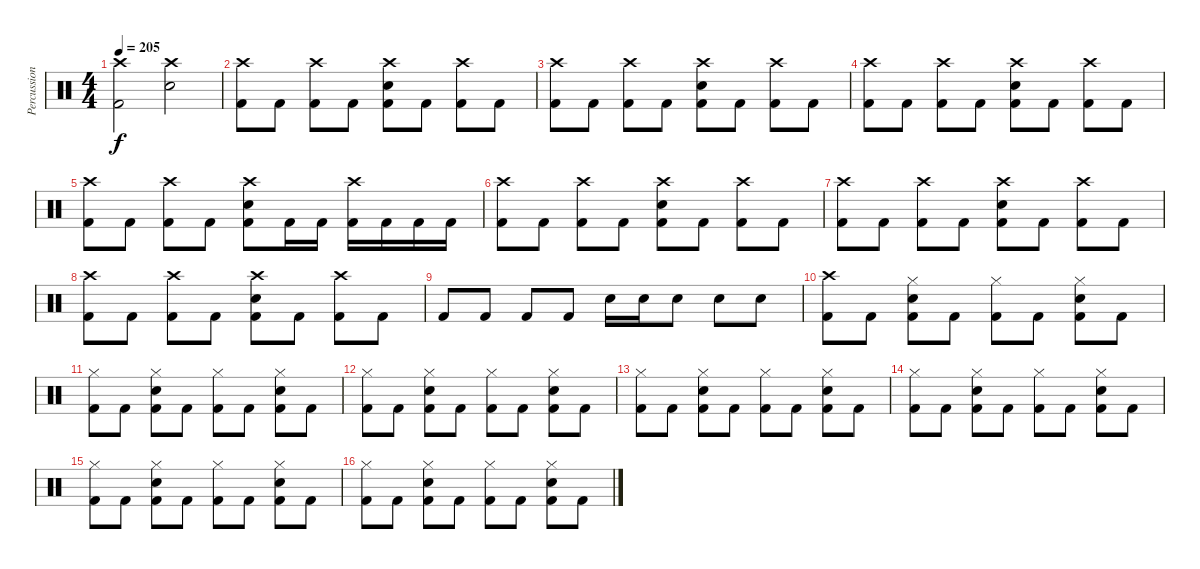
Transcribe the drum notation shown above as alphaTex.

\track ("Percussion" "Percussion") {instrument percussion}
\staff {score}
\articulation defaults
\ts (4 4)
\tempo 205
\clef neutral
\ks c
("Crash high (hit)" "Kick (hit) 2").2{dy f} ("Crash high (hit)" "Electric Snare (hit)").2 |
("Crash high (hit)" "Kick (hit) 2").8 "Kick (hit) 2".8 ("Crash high (hit)" "Kick (hit) 2").8 "Kick (hit) 2".8 ("Crash high (hit)" "Electric Snare (hit)" "Kick (hit) 2").8 "Kick (hit) 2".8 ("Crash high (hit)" "Kick (hit) 2").8 "Kick (hit) 2".8 |
("Crash high (hit)" "Kick (hit) 2").8 "Kick (hit) 2".8 ("Crash high (hit)" "Kick (hit) 2").8 "Kick (hit) 2".8 ("Crash high (hit)" "Electric Snare (hit)" "Kick (hit) 2").8 "Kick (hit) 2".8 ("Crash high (hit)" "Kick (hit) 2").8 "Kick (hit) 2".8 |
("Crash high (hit)" "Kick (hit) 2").8 "Kick (hit) 2".8 ("Crash high (hit)" "Kick (hit) 2").8 "Kick (hit) 2".8 ("Crash high (hit)" "Electric Snare (hit)" "Kick (hit) 2").8 "Kick (hit) 2".8 ("Crash high (hit)" "Kick (hit) 2").8 "Kick (hit) 2".8 |
("Crash high (hit)" "Kick (hit) 2").8 "Kick (hit) 2".8 ("Crash high (hit)" "Kick (hit) 2").8 "Kick (hit) 2".8 ("Crash high (hit)" "Electric Snare (hit)" "Kick (hit) 2").8 "Kick (hit) 2".16 "Kick (hit) 2".16 ("Crash high (hit)" "Kick (hit) 2").16 "Kick (hit) 2".16 "Kick (hit) 2".16 "Kick (hit) 2".16 |
("Crash high (hit)" "Kick (hit) 2").8 "Kick (hit) 2".8 ("Crash high (hit)" "Kick (hit) 2").8 "Kick (hit) 2".8 ("Crash high (hit)" "Electric Snare (hit)" "Kick (hit) 2").8 "Kick (hit) 2".8 ("Crash high (hit)" "Kick (hit) 2").8 "Kick (hit) 2".8 |
("Crash high (hit)" "Kick (hit) 2").8 "Kick (hit) 2".8 ("Crash high (hit)" "Kick (hit) 2").8 "Kick (hit) 2".8 ("Crash high (hit)" "Electric Snare (hit)" "Kick (hit) 2").8 "Kick (hit) 2".8 ("Crash high (hit)" "Kick (hit) 2").8 "Kick (hit) 2".8 |
("Crash high (hit)" "Kick (hit) 2").8 "Kick (hit) 2".8 ("Crash high (hit)" "Kick (hit) 2").8 "Kick (hit) 2".8 ("Crash high (hit)" "Electric Snare (hit)" "Kick (hit) 2").8 "Kick (hit) 2".8 ("Crash high (hit)" "Kick (hit) 2").8 "Kick (hit) 2".8 |
"Kick (hit) 2".8 "Kick (hit) 2".8 "Kick (hit) 2".8 "Kick (hit) 2".8 "Electric Snare (hit)".16 "Electric Snare (hit)".16 "Electric Snare (hit)".8 "Electric Snare (hit)".8 "Electric Snare (hit)".8 |
("Crash high (hit)" "Kick (hit) 2").8 "Kick (hit) 2".8 ("Hi-Hat (closed)" "Electric Snare (hit)" "Kick (hit) 2").8 "Kick (hit) 2".8 ("Hi-Hat (closed)" "Kick (hit) 2").8 "Kick (hit) 2".8 ("Hi-Hat (closed)" "Electric Snare (hit)" "Kick (hit) 2").8 "Kick (hit) 2".8 |
("Hi-Hat (closed)" "Kick (hit) 2").8 "Kick (hit) 2".8 ("Hi-Hat (closed)" "Electric Snare (hit)" "Kick (hit) 2").8 "Kick (hit) 2".8 ("Hi-Hat (closed)" "Kick (hit) 2").8 "Kick (hit) 2".8 ("Hi-Hat (closed)" "Electric Snare (hit)" "Kick (hit) 2").8 "Kick (hit) 2".8 |
("Hi-Hat (closed)" "Kick (hit) 2").8 "Kick (hit) 2".8 ("Hi-Hat (closed)" "Electric Snare (hit)" "Kick (hit) 2").8 "Kick (hit) 2".8 ("Hi-Hat (closed)" "Kick (hit) 2").8 "Kick (hit) 2".8 ("Hi-Hat (closed)" "Electric Snare (hit)" "Kick (hit) 2").8 "Kick (hit) 2".8 |
("Hi-Hat (closed)" "Kick (hit) 2").8 "Kick (hit) 2".8 ("Hi-Hat (closed)" "Electric Snare (hit)" "Kick (hit) 2").8 "Kick (hit) 2".8 ("Hi-Hat (closed)" "Kick (hit) 2").8 "Kick (hit) 2".8 ("Hi-Hat (closed)" "Electric Snare (hit)" "Kick (hit) 2").8 "Kick (hit) 2".8 |
("Hi-Hat (closed)" "Kick (hit) 2").8 "Kick (hit) 2".8 ("Hi-Hat (closed)" "Electric Snare (hit)" "Kick (hit) 2").8 "Kick (hit) 2".8 ("Hi-Hat (closed)" "Kick (hit) 2").8 "Kick (hit) 2".8 ("Hi-Hat (closed)" "Electric Snare (hit)" "Kick (hit) 2").8 "Kick (hit) 2".8 |
("Hi-Hat (closed)" "Kick (hit) 2").8 "Kick (hit) 2".8 ("Hi-Hat (closed)" "Electric Snare (hit)" "Kick (hit) 2").8 "Kick (hit) 2".8 ("Hi-Hat (closed)" "Kick (hit) 2").8 "Kick (hit) 2".8 ("Hi-Hat (closed)" "Electric Snare (hit)" "Kick (hit) 2").8 "Kick (hit) 2".8 |
("Hi-Hat (closed)" "Kick (hit) 2").8 "Kick (hit) 2".8 ("Hi-Hat (closed)" "Electric Snare (hit)" "Kick (hit) 2").8 "Kick (hit) 2".8 ("Hi-Hat (closed)" "Kick (hit) 2").8 "Kick (hit) 2".8 ("Hi-Hat (closed)" "Electric Snare (hit)" "Kick (hit) 2").8 "Kick (hit) 2".8
